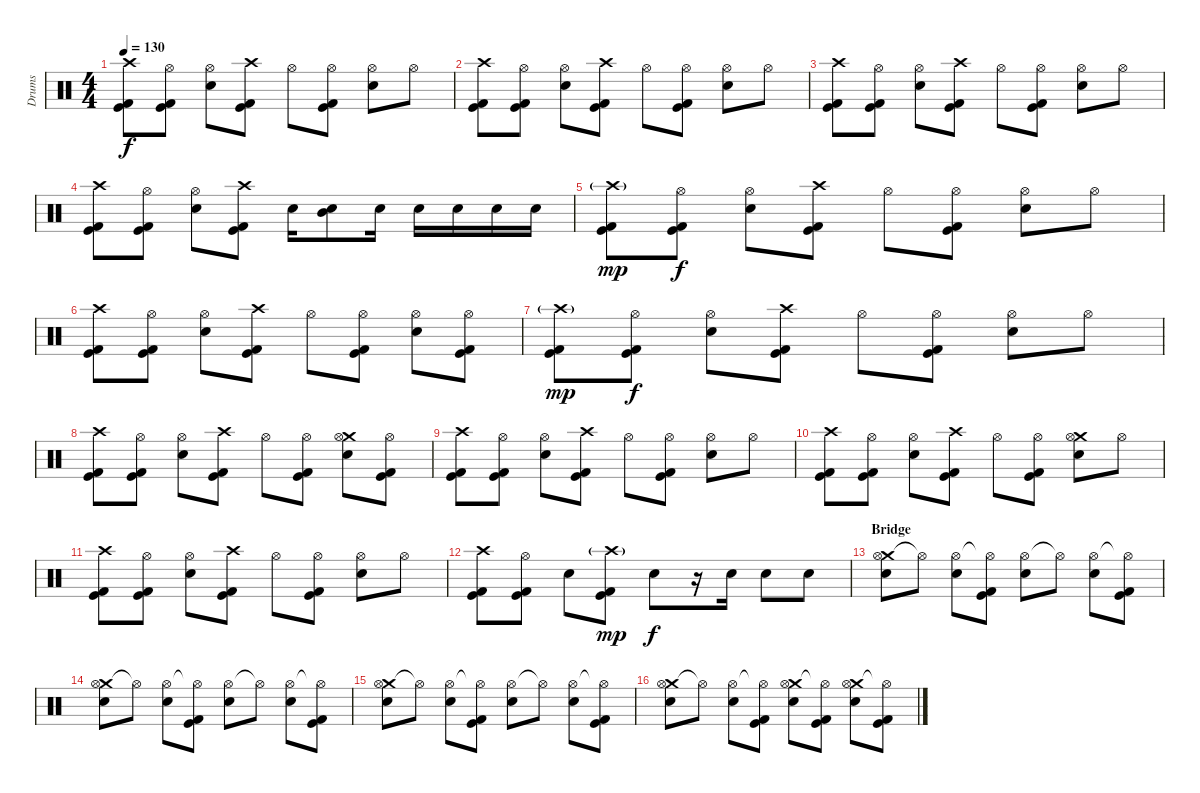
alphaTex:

\track ("Drums" "Drums") {instrument percussion}
\staff {score}
\articulation defaults
\ts (4 4)
\tempo 130
\clef neutral
\ks c
("Crash high (hit)" "Kick (hit) 2" "Kick (hit)").8{dy f} ("Hi-Hat (open)" "Kick (hit) 2" "Kick (hit)").8 ("Hi-Hat (open)" "Electric Snare (hit)").8 ("Crash high (hit)" "Kick (hit) 2" "Kick (hit)").8 "Hi-Hat (open)".8 ("Hi-Hat (open)" "Kick (hit) 2" "Kick (hit)").8 ("Hi-Hat (open)" "Electric Snare (hit)").8 "Hi-Hat (open)".8 |
("Crash high (hit)" "Kick (hit) 2" "Kick (hit)").8 ("Hi-Hat (open)" "Kick (hit) 2" "Kick (hit)").8 ("Hi-Hat (open)" "Electric Snare (hit)").8 ("Crash high (hit)" "Kick (hit) 2" "Kick (hit)").8 "Hi-Hat (open)".8 ("Hi-Hat (open)" "Kick (hit) 2" "Kick (hit)").8 ("Hi-Hat (open)" "Electric Snare (hit)").8 "Hi-Hat (open)".8 |
("Crash high (hit)" "Kick (hit) 2" "Kick (hit)").8 ("Hi-Hat (open)" "Kick (hit) 2" "Kick (hit)").8 ("Hi-Hat (open)" "Electric Snare (hit)").8 ("Crash high (hit)" "Kick (hit) 2" "Kick (hit)").8 "Hi-Hat (open)".8 ("Hi-Hat (open)" "Kick (hit) 2" "Kick (hit)").8 ("Hi-Hat (open)" "Electric Snare (hit)").8 "Hi-Hat (open)".8 |
("Crash high (hit)" "Kick (hit) 2" "Kick (hit)").8 ("Hi-Hat (open)" "Kick (hit) 2" "Kick (hit)").8 ("Hi-Hat (open)" "Electric Snare (hit)").8 ("Crash high (hit)" "Kick (hit) 2" "Kick (hit)").8 "Electric Snare (hit)".16 ("Electric Snare (hit)" "Mid Tom (hit)").8 "Electric Snare (hit)".16 "Electric Snare (hit)".16 "Electric Snare (hit)".16 "Electric Snare (hit)".16 "Electric Snare (hit)".16 |
("Crash high (hit)"{g} "Kick (hit) 2" "Kick (hit)").8{dy mp} ("Hi-Hat (open)" "Kick (hit) 2" "Kick (hit)").8{dy f} ("Hi-Hat (open)" "Electric Snare (hit)").8 ("Crash high (hit)" "Kick (hit) 2" "Kick (hit)").8 "Hi-Hat (open)".8 ("Hi-Hat (open)" "Kick (hit) 2" "Kick (hit)").8 ("Hi-Hat (open)" "Electric Snare (hit)").8 "Hi-Hat (open)".8 |
("Crash high (hit)" "Kick (hit) 2" "Kick (hit)").8 ("Hi-Hat (open)" "Kick (hit) 2" "Kick (hit)").8 ("Hi-Hat (open)" "Electric Snare (hit)").8 ("Crash high (hit)" "Kick (hit) 2" "Kick (hit)").8 "Hi-Hat (open)".8 ("Hi-Hat (open)" "Kick (hit) 2" "Kick (hit)").8 ("Hi-Hat (open)" "Electric Snare (hit)").8 ("Hi-Hat (open)" "Kick (hit) 2" "Kick (hit)").8 |
("Crash high (hit)"{g} "Kick (hit) 2" "Kick (hit)").8{dy mp} ("Hi-Hat (open)" "Kick (hit) 2" "Kick (hit)").8{dy f} ("Hi-Hat (open)" "Electric Snare (hit)").8 ("Crash high (hit)" "Kick (hit) 2" "Kick (hit)").8 "Hi-Hat (open)".8 ("Hi-Hat (open)" "Kick (hit) 2" "Kick (hit)").8 ("Hi-Hat (open)" "Electric Snare (hit)").8 "Hi-Hat (open)".8 |
("Crash high (hit)" "Kick (hit) 2" "Kick (hit)").8 ("Hi-Hat (open)" "Kick (hit) 2" "Kick (hit)").8 ("Hi-Hat (open)" "Electric Snare (hit)").8 ("Crash high (hit)" "Kick (hit) 2" "Kick (hit)").8 "Hi-Hat (open)".8 ("Hi-Hat (open)" "Kick (hit) 2" "Kick (hit)").8 ("Crash medium (hit)" "Hi-Hat (open)" "Electric Snare (hit)").8 ("Hi-Hat (open)" "Kick (hit) 2" "Kick (hit)").8 |
("Crash high (hit)" "Kick (hit) 2" "Kick (hit)").8 ("Hi-Hat (open)" "Kick (hit) 2" "Kick (hit)").8 ("Hi-Hat (open)" "Electric Snare (hit)").8 ("Crash high (hit)" "Kick (hit) 2" "Kick (hit)").8 "Hi-Hat (open)".8 ("Hi-Hat (open)" "Kick (hit) 2" "Kick (hit)").8 ("Hi-Hat (open)" "Electric Snare (hit)").8 "Hi-Hat (open)".8 |
("Crash high (hit)" "Kick (hit) 2" "Kick (hit)").8 ("Hi-Hat (open)" "Kick (hit) 2" "Kick (hit)").8 ("Hi-Hat (open)" "Electric Snare (hit)").8 ("Crash high (hit)" "Kick (hit) 2" "Kick (hit)").8 "Hi-Hat (open)".8 ("Hi-Hat (open)" "Kick (hit) 2" "Kick (hit)").8 ("Crash medium (hit)" "Hi-Hat (open)" "Electric Snare (hit)").8 "Hi-Hat (open)".8 |
("Crash high (hit)" "Kick (hit) 2" "Kick (hit)").8 ("Hi-Hat (open)" "Kick (hit) 2" "Kick (hit)").8 ("Hi-Hat (open)" "Electric Snare (hit)").8 ("Crash high (hit)" "Kick (hit) 2" "Kick (hit)").8 "Hi-Hat (open)".8 ("Hi-Hat (open)" "Kick (hit) 2" "Kick (hit)").8 ("Hi-Hat (open)" "Electric Snare (hit)").8 "Hi-Hat (open)".8 |
("Crash high (hit)" "Kick (hit) 2" "Kick (hit)").8 ("Hi-Hat (open)" "Kick (hit) 2" "Kick (hit)").8 "Electric Snare (hit)".8 ("Crash high (hit)"{g} "Kick (hit) 2" "Kick (hit)").8{dy mp} "Electric Snare (hit)".8{dy f} r.16 "Electric Snare (hit)".16 "Electric Snare (hit)".8 "Electric Snare (hit)".8 |
\section ("" "Bridge")
("Crash medium (hit)" "Hi-Hat (open)" "Electric Snare (hit)").8 "Hi-Hat (open)"{t}.8 ("Hi-Hat (open)" "Electric Snare (hit)").8 ("Hi-Hat (open)"{t} "Kick (hit) 2" "Kick (hit)").8 ("Hi-Hat (open)" "Electric Snare (hit)").8 "Hi-Hat (open)"{t}.8 ("Hi-Hat (open)" "Electric Snare (hit)").8 ("Hi-Hat (open)"{t} "Kick (hit) 2" "Kick (hit)").8 |
("Crash medium (hit)" "Hi-Hat (open)" "Electric Snare (hit)").8 "Hi-Hat (open)"{t}.8 ("Hi-Hat (open)" "Electric Snare (hit)").8 ("Hi-Hat (open)"{t} "Kick (hit) 2" "Kick (hit)").8 ("Hi-Hat (open)" "Electric Snare (hit)").8 "Hi-Hat (open)"{t}.8 ("Hi-Hat (open)" "Electric Snare (hit)").8 ("Hi-Hat (open)"{t} "Kick (hit) 2" "Kick (hit)").8 |
("Crash medium (hit)" "Hi-Hat (open)" "Electric Snare (hit)").8 "Hi-Hat (open)"{t}.8 ("Hi-Hat (open)" "Electric Snare (hit)").8 ("Hi-Hat (open)"{t} "Kick (hit) 2" "Kick (hit)").8 ("Hi-Hat (open)" "Electric Snare (hit)").8 "Hi-Hat (open)"{t}.8 ("Hi-Hat (open)" "Electric Snare (hit)").8 ("Hi-Hat (open)"{t} "Kick (hit) 2" "Kick (hit)").8 |
("Crash medium (hit)" "Hi-Hat (open)" "Electric Snare (hit)").8 "Hi-Hat (open)"{t}.8 ("Hi-Hat (open)" "Electric Snare (hit)").8 ("Hi-Hat (open)"{t} "Kick (hit) 2" "Kick (hit)").8 ("Crash medium (hit)" "Hi-Hat (open)" "Electric Snare (hit)").8 ("Hi-Hat (open)"{t} "Kick (hit) 2" "Kick (hit)").8 ("Crash medium (hit)" "Hi-Hat (open)" "Electric Snare (hit)").8 ("Hi-Hat (open)"{t} "Kick (hit) 2" "Kick (hit)").8
